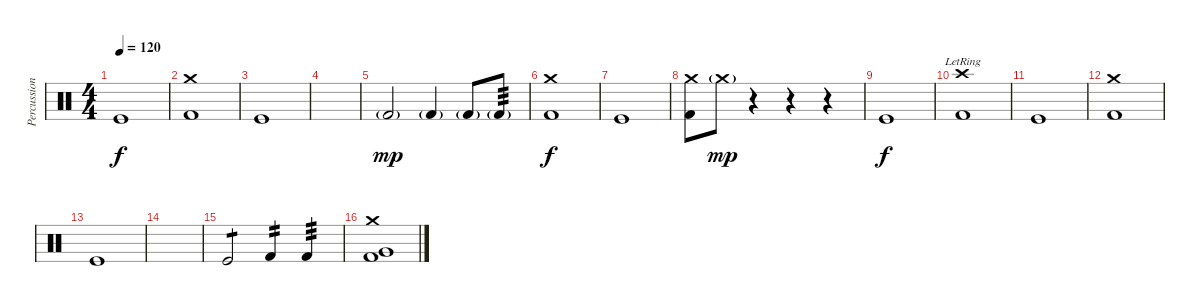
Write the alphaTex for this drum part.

\track ("Percussion" "Percussion") {instrument percussion}
\staff {score}
\articulation defaults
\ts (4 4)
\tempo 120
\clef neutral
\ks c "Kick (hit)".1{dy f}
|
("Kick (hit) 2" "Crash medium (hit)").1 |
"Kick (hit)".1 |
|
"Kick (hit) 2"{g}.2{dy mp} "Kick (hit) 2"{g}.4 "Kick (hit) 2"{g}.8 "Kick (hit) 2"{g}.8{tp 3} |
("Kick (hit) 2" "Crash medium (hit)").1{dy f} |
"Kick (hit)".1 |
("Kick (hit) 2" "Crash medium (hit)").8 "Crash medium (hit)"{g}.8{dy mp} r.4 r.4 r.4 |
"Kick (hit)".1{dy f} |
("Kick (hit) 2" "Crash high (hit)"{lr}).1 |
"Kick (hit)".1 |
("Kick (hit) 2" "Crash medium (hit)").1 |
"Kick (hit)".1 |
|
"Kick (hit)".2{tp 1} "Kick (hit) 2".4{tp 2} "Kick (hit) 2".4{tp 3} |
("Kick (hit) 2" "Crash medium (hit)" "Very Low Tom (hit)").1
